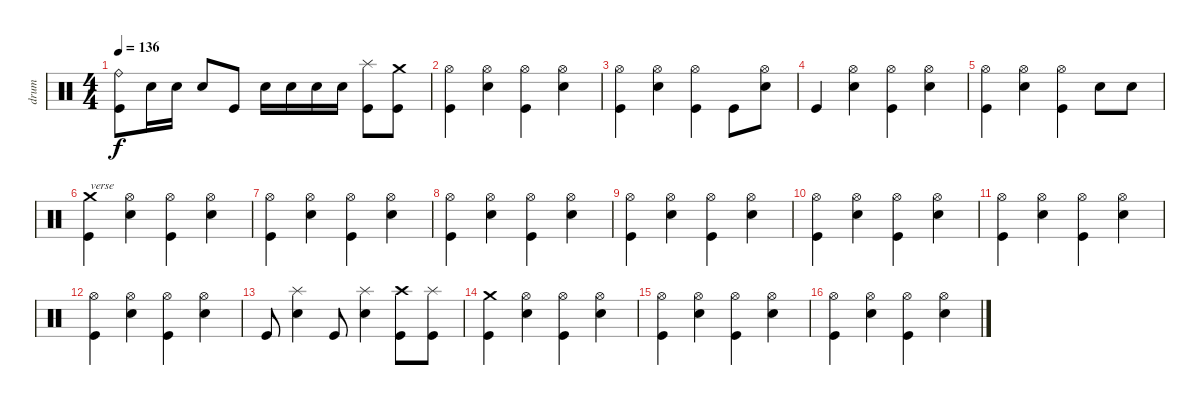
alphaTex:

\track ("drum" "drum") {instrument percussion}
\staff {score}
\articulation defaults
\ts (4 4)
\tempo 136
\clef neutral
\ks c
("Kick (hit)" "Ride (bell)").8{dy f} "Electric Snare (hit)".16 "Electric Snare (hit)".16 "Electric Snare (hit)".8 "Kick (hit)".8 "Electric Snare (hit)".16 "Electric Snare (hit)".16 "Electric Snare (hit)".16 "Electric Snare (hit)".16 ("Kick (hit)" "Splash (hit)").8 ("Kick (hit)" "Crash medium (hit)").8 |
("Kick (hit)" "Hi-Hat (open)").4 ("Electric Snare (hit)" "Hi-Hat (open)").4 ("Kick (hit)" "Hi-Hat (open)").4 ("Electric Snare (hit)" "Hi-Hat (open)").4 |
("Kick (hit)" "Hi-Hat (open)").4 ("Electric Snare (hit)" "Hi-Hat (open)").4 ("Kick (hit)" "Hi-Hat (open)").4 "Kick (hit)".8 ("Electric Snare (hit)" "Hi-Hat (open)").8 |
"Kick (hit)".4 ("Electric Snare (hit)" "Hi-Hat (open)").4 ("Kick (hit)" "Hi-Hat (open)").4 ("Electric Snare (hit)" "Hi-Hat (open)").4 |
("Kick (hit)" "Hi-Hat (open)").4 ("Electric Snare (hit)" "Hi-Hat (open)").4 ("Kick (hit)" "Hi-Hat (open)").4 "Electric Snare (hit)".8 "Electric Snare (hit)".8 |
("Kick (hit)" "Crash medium (hit)").4{txt "verse"} ("Electric Snare (hit)" "Hi-Hat (open)").4 ("Kick (hit)" "Hi-Hat (open)").4 ("Electric Snare (hit)" "Hi-Hat (open)").4 |
("Kick (hit)" "Hi-Hat (open)").4 ("Electric Snare (hit)" "Hi-Hat (open)").4 ("Kick (hit)" "Hi-Hat (open)").4 ("Electric Snare (hit)" "Hi-Hat (open)").4 |
("Kick (hit)" "Hi-Hat (open)").4 ("Electric Snare (hit)" "Hi-Hat (open)").4 ("Kick (hit)" "Hi-Hat (open)").4 ("Electric Snare (hit)" "Hi-Hat (open)").4 |
("Kick (hit)" "Hi-Hat (open)").4 ("Electric Snare (hit)" "Hi-Hat (open)").4 ("Kick (hit)" "Hi-Hat (open)").4 ("Electric Snare (hit)" "Hi-Hat (open)").4 |
("Kick (hit)" "Hi-Hat (open)").4 ("Electric Snare (hit)" "Hi-Hat (open)").4 ("Kick (hit)" "Hi-Hat (open)").4 ("Electric Snare (hit)" "Hi-Hat (open)").4 |
("Kick (hit)" "Hi-Hat (open)").4 ("Electric Snare (hit)" "Hi-Hat (open)").4 ("Kick (hit)" "Hi-Hat (open)").4 ("Electric Snare (hit)" "Hi-Hat (open)").4 |
("Kick (hit)" "Hi-Hat (open)").4 ("Electric Snare (hit)" "Hi-Hat (open)").4 ("Kick (hit)" "Hi-Hat (open)").4 ("Electric Snare (hit)" "Hi-Hat (open)").4 |
"Kick (hit)".8 ("Electric Snare (hit)" "Splash (hit)").4 "Kick (hit)".8 ("Electric Snare (hit)" "Splash (hit)").4 ("Kick (hit)" "Crash high (hit)").8 ("Kick (hit)" "Splash (hit)").8 |
("Kick (hit)" "Crash medium (hit)").4 ("Electric Snare (hit)" "Hi-Hat (open)").4 ("Kick (hit)" "Hi-Hat (open)").4 ("Electric Snare (hit)" "Hi-Hat (open)").4 |
("Kick (hit)" "Hi-Hat (open)").4 ("Electric Snare (hit)" "Hi-Hat (open)").4 ("Kick (hit)" "Hi-Hat (open)").4 ("Electric Snare (hit)" "Hi-Hat (open)").4 |
("Kick (hit)" "Hi-Hat (open)").4 ("Electric Snare (hit)" "Hi-Hat (open)").4 ("Kick (hit)" "Hi-Hat (open)").4 ("Electric Snare (hit)" "Hi-Hat (open)").4
